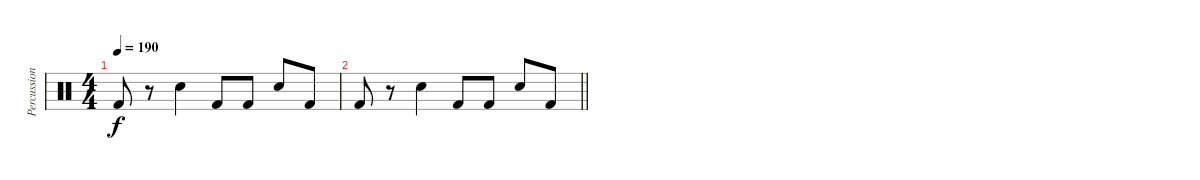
\track ("Percussion" "Percussion") {instrument percussion}
\staff {score}
\articulation defaults
\ts (4 4)
\tempo 190
\clef neutral
\ks c "Kick (hit) 2".8{dy f}
r.8 "Electric Snare (hit)".4 "Kick (hit) 2".8 "Kick (hit) 2".8 "Electric Snare (hit)".8 "Kick (hit) 2".8 |
\barLineRight lightlight "Kick (hit) 2".8
r.8 "Electric Snare (hit)".4 "Kick (hit) 2".8 "Kick (hit) 2".8 "Electric Snare (hit)".8 "Kick (hit) 2".8
